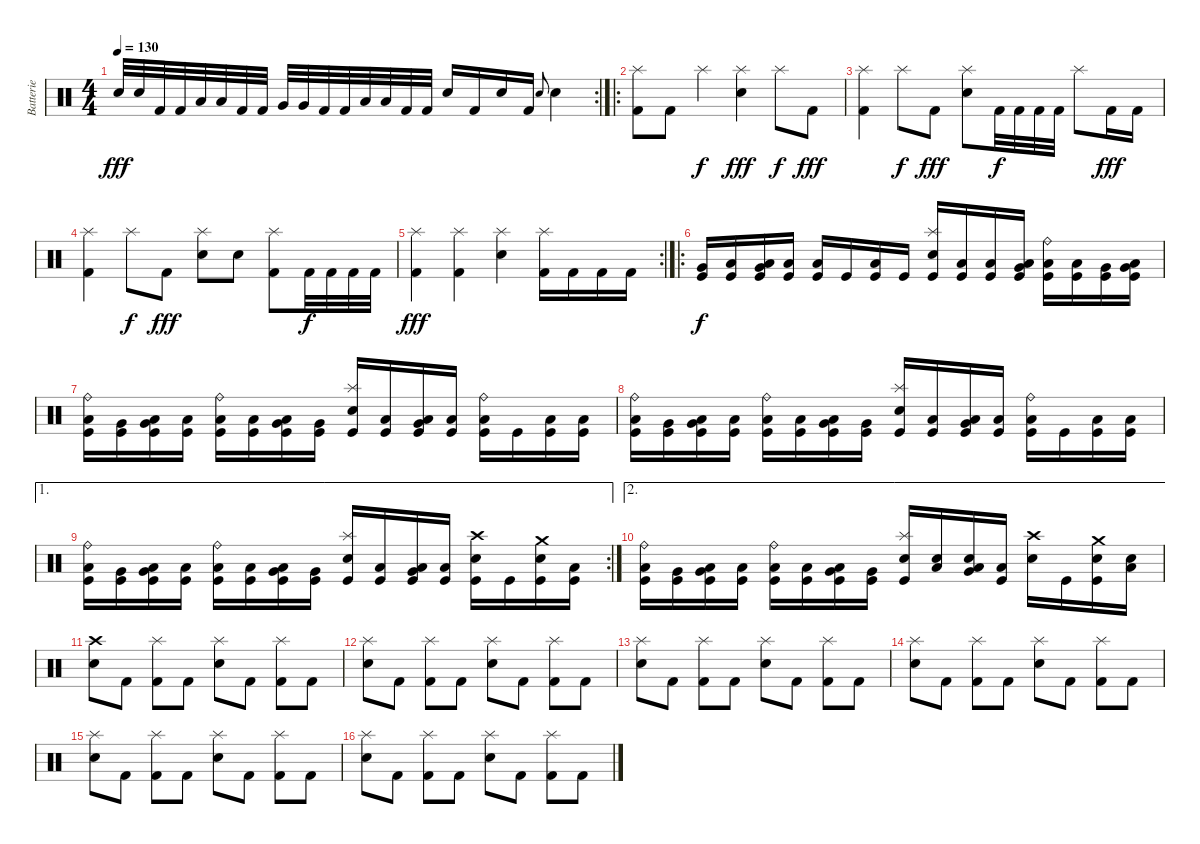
\track ("Batterie" "Batterie") {instrument percussion}
\staff {score}
\articulation defaults
\rc 2
\ts (4 4)
\tempo 130
\clef neutral
\ks c "Electric Snare (hit)".32{dy fff} "Electric Snare (hit)".32 "Kick (hit) 2".32 "Kick (hit) 2".32 "Low Tom (hit)".32 "Low Tom (hit)".32 "Kick (hit) 2".32 "Kick (hit) 2".32 "Very Low Tom (hit)".32 "Very Low Tom (hit)".32 "Kick (hit) 2".32 "Kick (hit) 2".32 "Low Floor Tom (hit)".32 "Low Floor Tom (hit)".32 "Kick (hit) 2".32 "Kick (hit) 2".32 "Electric Snare (hit)".16 "Kick (hit) 2".16 "Electric Snare (hit)".16 "Kick (hit) 2".16 "Electric Snare (hit)".8{gr onbeat} "Electric Snare (hit)".4
|
\ro
("Splash (hit)" "Kick (hit) 2").8 "Kick (hit) 2".8 "Splash (hit)".4{dy f} ("Splash (hit)" "Electric Snare (hit)").4{dy fff} "Splash (hit)".8{dy f} "Kick (hit) 2".8{dy fff} |
("Splash (hit)" "Kick (hit) 2").4 "Splash (hit)".8{dy f} "Kick (hit) 2".8{dy fff} ("Splash (hit)" "Electric Snare (hit)").8 "Kick (hit) 2".32{dy f} "Kick (hit) 2".32 "Kick (hit) 2".32 "Kick (hit) 2".32 "Splash (hit)".8 "Kick (hit) 2".16{dy fff} "Kick (hit) 2".16 |
("Splash (hit)" "Kick (hit) 2").4 "Splash (hit)".8{dy f} "Kick (hit) 2".8{dy fff} ("Splash (hit)" "Electric Snare (hit)").8 "Electric Snare (hit)".8 ("Splash (hit)" "Kick (hit) 2").8 "Kick (hit) 2".32{dy f} "Kick (hit) 2".32 "Kick (hit) 2".32 "Kick (hit) 2".32 |
\rc 2
("Splash (hit)" "Kick (hit) 2").4{dy fff} ("Splash (hit)" "Kick (hit) 2").4 ("Splash (hit)" "Electric Snare (hit)").4 ("Splash (hit)" "Kick (hit) 2").16 "Kick (hit) 2".16 "Kick (hit) 2".16 "Kick (hit) 2".16 |
\ro
("Kick (hit)" "Very Low Tom (hit)").16{dy f} ("Kick (hit)" "Low Floor Tom (hit)").16 ("Kick (hit)" "Low Floor Tom (hit)" "Very Low Tom (hit)").16 ("Kick (hit)" "Low Floor Tom (hit)").16 ("Kick (hit)" "Low Floor Tom (hit)").16 "Kick (hit)".16 ("Kick (hit)" "Low Floor Tom (hit)").16 "Kick (hit)".16 ("Splash (hit)" "Kick (hit)" "Electric Snare (hit)").16 ("Kick (hit)" "Low Floor Tom (hit)").16 ("Kick (hit)" "Low Floor Tom (hit)").16 ("Kick (hit)" "Low Floor Tom (hit)" "Very Low Tom (hit)").16 ("Ride (bell)" "Kick (hit)" "Low Floor Tom (hit)").16 ("Kick (hit)" "Low Floor Tom (hit)").16 ("Kick (hit)" "Very Low Tom (hit)").16 ("Kick (hit)" "Very Low Tom (hit)" "Low Floor Tom (hit)").16 |
("Ride (bell)" "Kick (hit)" "Low Floor Tom (hit)").16 ("Kick (hit)" "Very Low Tom (hit)").16 ("Kick (hit)" "Very Low Tom (hit)" "Low Floor Tom (hit)").16 ("Kick (hit)" "Low Floor Tom (hit)").16 ("Ride (bell)" "Kick (hit)" "Low Floor Tom (hit)").16 ("Kick (hit)" "Low Floor Tom (hit)").16 ("Kick (hit)" "Very Low Tom (hit)" "Low Floor Tom (hit)").16 ("Kick (hit)" "Very Low Tom (hit)").16 ("Splash (hit)" "Kick (hit)" "Electric Snare (hit)").16 ("Kick (hit)" "Low Floor Tom (hit)").16 ("Kick (hit)" "Low Floor Tom (hit)" "Very Low Tom (hit)").16 ("Kick (hit)" "Low Floor Tom (hit)").16 ("Ride (bell)" "Kick (hit)" "Low Floor Tom (hit)").16 "Kick (hit)".16 ("Kick (hit)" "Low Floor Tom (hit)").16 ("Kick (hit)" "Low Floor Tom (hit)").16 |
("Ride (bell)" "Kick (hit)" "Low Floor Tom (hit)").16 ("Kick (hit)" "Very Low Tom (hit)").16 ("Kick (hit)" "Very Low Tom (hit)" "Low Floor Tom (hit)").16 ("Kick (hit)" "Low Floor Tom (hit)").16 ("Ride (bell)" "Kick (hit)" "Low Floor Tom (hit)").16 ("Kick (hit)" "Low Floor Tom (hit)").16 ("Kick (hit)" "Very Low Tom (hit)" "Low Floor Tom (hit)").16 ("Kick (hit)" "Very Low Tom (hit)").16 ("Splash (hit)" "Kick (hit)" "Electric Snare (hit)").16 ("Kick (hit)" "Low Floor Tom (hit)").16 ("Kick (hit)" "Low Floor Tom (hit)" "Very Low Tom (hit)").16 ("Kick (hit)" "Low Floor Tom (hit)").16 ("Ride (bell)" "Kick (hit)" "Low Floor Tom (hit)").16 "Kick (hit)".16 ("Kick (hit)" "Low Floor Tom (hit)").16 ("Kick (hit)" "Low Floor Tom (hit)").16 |
\ae 1
\rc 2
("Ride (bell)" "Kick (hit)" "Low Floor Tom (hit)").16 ("Kick (hit)" "Very Low Tom (hit)").16 ("Kick (hit)" "Very Low Tom (hit)" "Low Floor Tom (hit)").16 ("Kick (hit)" "Low Floor Tom (hit)").16 ("Ride (bell)" "Kick (hit)" "Low Floor Tom (hit)").16 ("Kick (hit)" "Low Floor Tom (hit)").16 ("Kick (hit)" "Very Low Tom (hit)" "Low Floor Tom (hit)").16 ("Kick (hit)" "Very Low Tom (hit)").16 ("Splash (hit)" "Kick (hit)" "Electric Snare (hit)").16 ("Kick (hit)" "Low Floor Tom (hit)").16 ("Kick (hit)" "Low Floor Tom (hit)" "Very Low Tom (hit)").16 ("Kick (hit)" "Low Floor Tom (hit)").16 ("Crash high (hit)" "Kick (hit)" "Electric Snare (hit)").16 "Kick (hit)".16 ("Crash medium (hit)" "Kick (hit)" "Electric Snare (hit)").16 ("Kick (hit)" "Low Floor Tom (hit)").16 |
\ae 2
("Ride (bell)" "Kick (hit)" "Low Floor Tom (hit)").16 ("Kick (hit)" "Very Low Tom (hit)").16 ("Kick (hit)" "Very Low Tom (hit)" "Low Floor Tom (hit)").16 ("Kick (hit)" "Low Floor Tom (hit)").16 ("Ride (bell)" "Kick (hit)" "Low Floor Tom (hit)").16 ("Kick (hit)" "Low Floor Tom (hit)").16 ("Kick (hit)" "Very Low Tom (hit)" "Low Floor Tom (hit)").16 ("Kick (hit)" "Very Low Tom (hit)").16 ("Splash (hit)" "Kick (hit)" "Electric Snare (hit)").16 ("Electric Snare (hit)" "Low Floor Tom (hit)").16 ("Electric Snare (hit)" "Low Floor Tom (hit)" "Very Low Tom (hit)").16 ("Kick (hit)" "Low Floor Tom (hit)").16 ("Crash high (hit)" "Electric Snare (hit)").16 "Kick (hit)".16 ("Crash medium (hit)" "Kick (hit)" "Electric Snare (hit)").16 ("Electric Snare (hit)" "Low Floor Tom (hit)").16 |
("Crash high (hit)" "Electric Snare (hit)").8 "Kick (hit) 2".8 ("Splash (hit)" "Kick (hit) 2").8 "Kick (hit) 2".8 ("Splash (hit)" "Electric Snare (hit)").8 "Kick (hit) 2".8 ("Splash (hit)" "Kick (hit) 2").8 "Kick (hit) 2".8 |
("Splash (hit)" "Electric Snare (hit)").8 "Kick (hit) 2".8 ("Splash (hit)" "Kick (hit) 2").8 "Kick (hit) 2".8 ("Splash (hit)" "Electric Snare (hit)").8 "Kick (hit) 2".8 ("Splash (hit)" "Kick (hit) 2").8 "Kick (hit) 2".8 |
("Splash (hit)" "Electric Snare (hit)").8 "Kick (hit) 2".8 ("Splash (hit)" "Kick (hit) 2").8 "Kick (hit) 2".8 ("Splash (hit)" "Electric Snare (hit)").8 "Kick (hit) 2".8 ("Splash (hit)" "Kick (hit) 2").8 "Kick (hit) 2".8 |
("Splash (hit)" "Electric Snare (hit)").8 "Kick (hit) 2".8 ("Splash (hit)" "Kick (hit) 2").8 "Kick (hit) 2".8 ("Splash (hit)" "Electric Snare (hit)").8 "Kick (hit) 2".8 ("Splash (hit)" "Kick (hit) 2").8 "Kick (hit) 2".8 |
("Splash (hit)" "Electric Snare (hit)").8 "Kick (hit) 2".8 ("Splash (hit)" "Kick (hit) 2").8 "Kick (hit) 2".8 ("Splash (hit)" "Electric Snare (hit)").8 "Kick (hit) 2".8 ("Splash (hit)" "Kick (hit) 2").8 "Kick (hit) 2".8 |
("Splash (hit)" "Electric Snare (hit)").8 "Kick (hit) 2".8 ("Splash (hit)" "Kick (hit) 2").8 "Kick (hit) 2".8 ("Splash (hit)" "Electric Snare (hit)").8 "Kick (hit) 2".8 ("Splash (hit)" "Kick (hit) 2").8 "Kick (hit) 2".8
